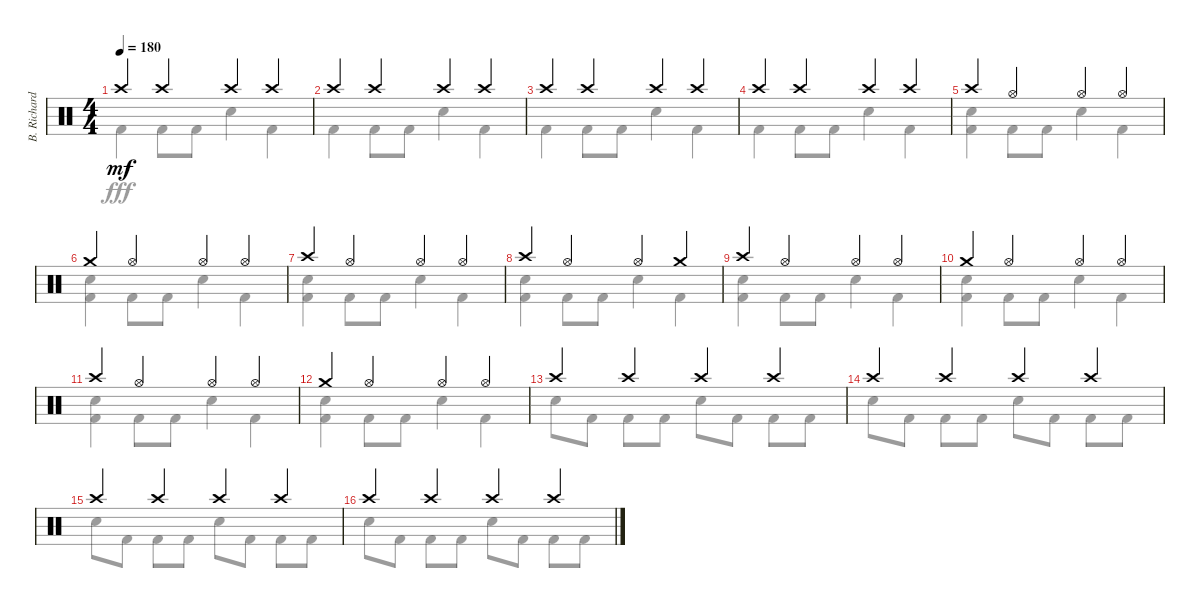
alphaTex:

\track ("B. Richardson Drums" "B. Richard") {instrument percussion}
\staff {score}
\articulation defaults
\voice
\ts (4 4)
\tempo 180
\clef neutral
\ks c "Crash high (hit)".4{dy mf} "Crash high (hit)".4 "Crash high (hit)".4 "Crash high (hit)".4
|
"Crash high (hit)".4 "Crash high (hit)".4 "Crash high (hit)".4 "Crash high (hit)".4 |
"Crash high (hit)".4 "Crash high (hit)".4 "Crash high (hit)".4 "Crash high (hit)".4 |
"Crash high (hit)".4 "Crash high (hit)".4 "Crash high (hit)".4 "Crash high (hit)".4 |
"Crash high (hit)".4 "Hi-Hat (open)".4 "Hi-Hat (open)".4 "Hi-Hat (open)".4 |
"Crash medium (hit)".4 "Hi-Hat (open)".4 "Hi-Hat (open)".4 "Hi-Hat (open)".4 |
"Crash high (hit)".4 "Hi-Hat (open)".4 "Hi-Hat (open)".4 "Hi-Hat (open)".4 |
"Crash high (hit)".4 "Hi-Hat (open)".4 "Hi-Hat (open)".4 "Crash medium (hit)".4 |
"Crash high (hit)".4 "Hi-Hat (open)".4 "Hi-Hat (open)".4 "Hi-Hat (open)".4 |
"Crash medium (hit)".4 "Hi-Hat (open)".4 "Hi-Hat (open)".4 "Hi-Hat (open)".4 |
"Crash high (hit)".4 "Hi-Hat (open)".4 "Hi-Hat (open)".4 "Hi-Hat (open)".4 |
"Crash medium (hit)".4 "Hi-Hat (open)".4 "Hi-Hat (open)".4 "Hi-Hat (open)".4 |
"Crash high (hit)".4 "Crash high (hit)".4 "Crash high (hit)".4 "Crash high (hit)".4 |
"Crash high (hit)".4 "Crash high (hit)".4 "Crash high (hit)".4 "Crash high (hit)".4 |
"Crash high (hit)".4 "Crash high (hit)".4 "Crash high (hit)".4 "Crash high (hit)".4 |
"Crash high (hit)".4 "Crash high (hit)".4 "Crash high (hit)".4 "Crash high (hit)".4
\voice
\clef neutral
\ottava regular
\simile none
\ks c "Kick (hit) 2".4{dy fff} "Kick (hit) 2".8 "Kick (hit) 2".8 "Electric Snare (hit)".4 "Kick (hit) 2".4
|
"Kick (hit) 2".4 "Kick (hit) 2".8 "Kick (hit) 2".8 "Electric Snare (hit)".4 "Kick (hit) 2".4 |
"Kick (hit) 2".4 "Kick (hit) 2".8 "Kick (hit) 2".8 "Electric Snare (hit)".4 "Kick (hit) 2".4 |
"Kick (hit) 2".4 "Kick (hit) 2".8 "Kick (hit) 2".8 "Electric Snare (hit)".4 "Kick (hit) 2".4 |
("Electric Snare (hit)" "Kick (hit) 2").4 "Kick (hit) 2".8 "Kick (hit) 2".8 "Electric Snare (hit)".4 "Kick (hit) 2".4 |
("Electric Snare (hit)" "Kick (hit) 2").4 "Kick (hit) 2".8 "Kick (hit) 2".8 "Electric Snare (hit)".4 "Kick (hit) 2".4 |
("Electric Snare (hit)" "Kick (hit) 2").4 "Kick (hit) 2".8 "Kick (hit) 2".8 "Electric Snare (hit)".4 "Kick (hit) 2".4 |
("Electric Snare (hit)" "Kick (hit) 2").4 "Kick (hit) 2".8 "Kick (hit) 2".8 "Electric Snare (hit)".4 "Kick (hit) 2".4 |
("Electric Snare (hit)" "Kick (hit) 2").4 "Kick (hit) 2".8 "Kick (hit) 2".8 "Electric Snare (hit)".4 "Kick (hit) 2".4 |
("Electric Snare (hit)" "Kick (hit) 2").4 "Kick (hit) 2".8 "Kick (hit) 2".8 "Electric Snare (hit)".4 "Kick (hit) 2".4 |
("Electric Snare (hit)" "Kick (hit) 2").4 "Kick (hit) 2".8 "Kick (hit) 2".8 "Electric Snare (hit)".4 "Kick (hit) 2".4 |
("Electric Snare (hit)" "Kick (hit) 2").4 "Kick (hit) 2".8 "Kick (hit) 2".8 "Electric Snare (hit)".4 "Kick (hit) 2".4 |
"Electric Snare (hit)".8 "Kick (hit) 2".8 "Kick (hit) 2".8 "Kick (hit) 2".8 "Electric Snare (hit)".8 "Kick (hit) 2".8 "Kick (hit) 2".8 "Kick (hit) 2".8 |
"Electric Snare (hit)".8 "Kick (hit) 2".8 "Kick (hit) 2".8 "Kick (hit) 2".8 "Electric Snare (hit)".8 "Kick (hit) 2".8 "Kick (hit) 2".8 "Kick (hit) 2".8 |
"Electric Snare (hit)".8 "Kick (hit) 2".8 "Kick (hit) 2".8 "Kick (hit) 2".8 "Electric Snare (hit)".8 "Kick (hit) 2".8 "Kick (hit) 2".8 "Kick (hit) 2".8 |
"Electric Snare (hit)".8 "Kick (hit) 2".8 "Kick (hit) 2".8 "Kick (hit) 2".8 "Electric Snare (hit)".8 "Kick (hit) 2".8 "Kick (hit) 2".8 "Kick (hit) 2".8
